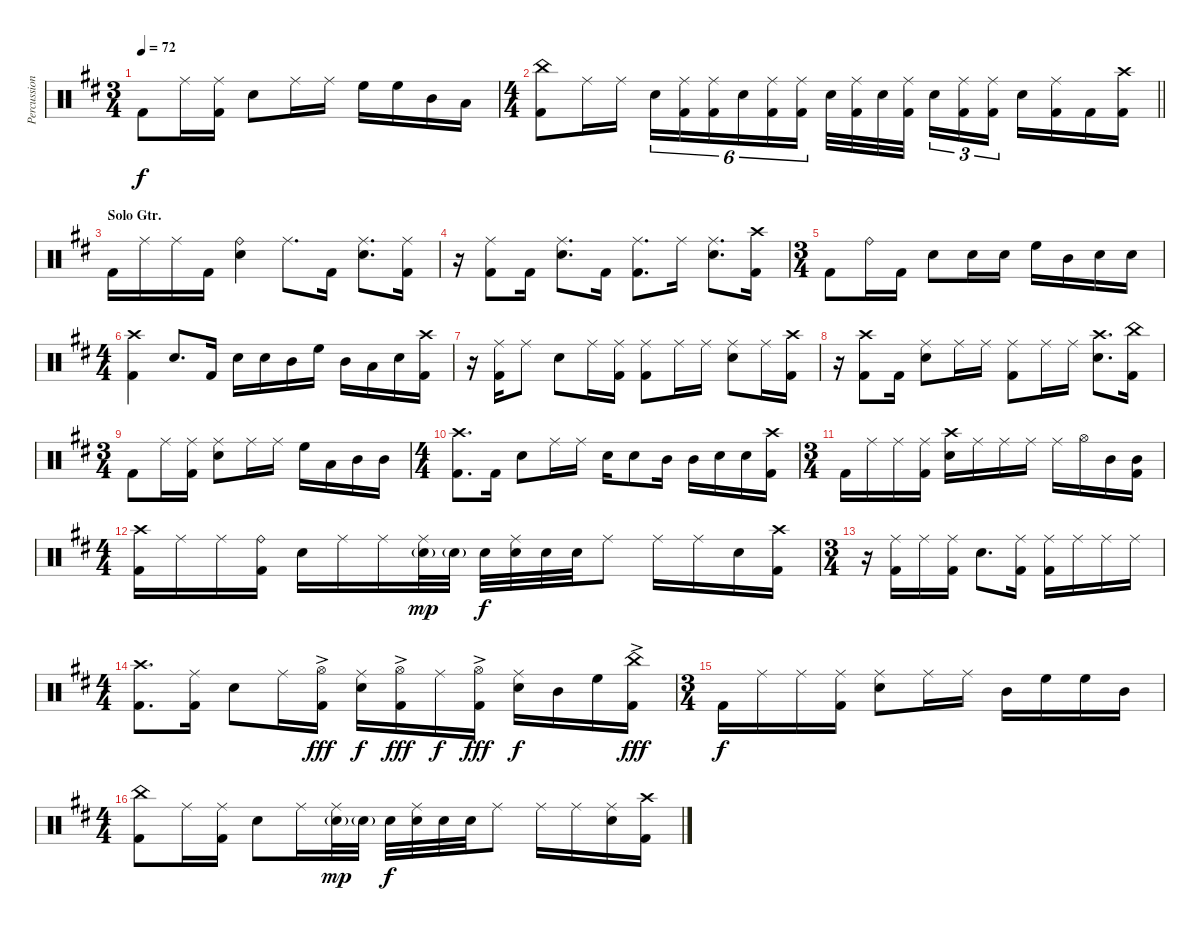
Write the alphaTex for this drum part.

\track ("Percussions" "Percussion") {instrument percussion}
\staff {score}
\articulation defaults
\ts (3 4)
\tempo 72
\clef neutral
\ks bminor "Kick (hit) 2".8{dy f} "Ride (middle)".16
("Ride (middle)" "Kick (hit) 2").16 "Snare (hit) 2".8 "Ride (middle)".16 "Ride (middle)".16 "High Floor Tom (hit)".16 "High Floor Tom (hit)".16 "Mid Tom (hit)".16 "Low Tom (hit)".16 |
\ts (4 4)
\barLineRight lightlight
("China (hit)" "Kick (hit) 2").8 "Ride (middle)".16 "Ride (middle)".16 "Snare (hit) 2".16{tu (6 4)} ("Ride (middle)" "Kick (hit) 2").16{tu (6 4)} ("Ride (middle)" "Kick (hit) 2").16{tu (6 4)} "Snare (hit) 2".16{tu (6 4)} ("Ride (middle)" "Kick (hit) 2").16{tu (6 4)} ("Ride (middle)" "Kick (hit) 2").16{tu (6 4)} "Snare (hit) 2".32 ("Ride (middle)" "Kick (hit) 2").32 "Snare (hit) 2".32 ("Ride (middle)" "Kick (hit) 2").32 "Snare (hit) 2".16{tu (3 2)} ("Ride (middle)" "Kick (hit) 2").16{tu (3 2)} ("Ride (middle)" "Kick (hit) 2").16{tu (3 2)} "Snare (hit) 2".16 ("Ride (middle)" "Kick (hit) 2").16 "Kick (hit) 2".16 ("Crash high (hit)" "Kick (hit) 2").16 |
\section ("" "Solo Gtr.")
"Kick (hit) 2".16 "Ride (middle)".16 "Ride (middle)".16 "Kick (hit) 2".16 ("Ride (bell)" "Snare (hit) 2").4 "Ride (middle)".8{d} "Kick (hit) 2".16 ("Ride (middle)" "Snare (hit) 2").8{d} ("Ride (middle)" "Kick (hit) 2").16 |
r.16 ("Ride (middle)" "Kick (hit) 2").8 "Kick (hit) 2".16 ("Ride (middle)" "Snare (hit) 2").8{d} "Kick (hit) 2".16 ("Ride (middle)" "Kick (hit) 2").8{d} "Ride (middle)".16 ("Ride (middle)" "Snare (hit) 2").8{d} ("Crash high (hit)" "Kick (hit) 2").16 |
\ts (3 4)
"Kick (hit) 2".8 "Ride (bell)".16 "Kick (hit) 2".16 "Snare (hit) 2".8 "Snare (hit) 2".16 "Snare (hit) 2".16 "High Floor Tom (hit)".16 "Mid Tom (hit)".16 "Snare (hit) 2".16 "Snare (hit) 2".16 |
\ts (4 4)
("Crash high (hit)" "Kick (hit) 2").4 "Snare (hit) 2".8{d} "Kick (hit) 2".16 "Snare (hit) 2".16 "Snare (hit) 2".16 "Mid Tom (hit)".16 "High Floor Tom (hit)".16 "Mid Tom (hit)".16 "Low Tom (hit)".16 "Snare (hit) 2".16 ("Crash high (hit)" "Kick (hit) 2").16 |
r.16 ("Ride (middle)" "Kick (hit) 2").16 "Ride (middle)".8 "Snare (hit) 2".8 "Ride (middle)".16 ("Ride (middle)" "Kick (hit) 2").16 ("Ride (middle)" "Kick (hit) 2").8 "Ride (middle)".16 "Ride (middle)".16 ("Ride (middle)" "Snare (hit) 2").8 "Ride (middle)".16 ("Crash high (hit)" "Kick (hit) 2").16 |
r.16 ("Crash high (hit)" "Kick (hit) 2").8 "Kick (hit) 2".16 ("Ride (middle)" "Snare (hit) 2").8 "Ride (middle)".16 "Ride (middle)".16 ("Ride (middle)" "Kick (hit) 2").8 "Ride (middle)".16 "Ride (middle)".16 ("Crash high (hit)" "Snare (hit) 2").8{d} ("China (hit)" "Kick (hit) 2").16 |
\ts (3 4)
"Kick (hit) 2".8 "Ride (middle)".16 ("Ride (middle)" "Kick (hit) 2").16 ("Ride (middle)" "Snare (hit) 2").8 "Ride (middle)".16 "Ride (middle)".16 "High Floor Tom (hit)".16 "Low Tom (hit)".16 "Mid Tom (hit)".16 "Mid Tom (hit)".16 |
\ts (4 4)
("Crash high (hit)" "Kick (hit) 2").8{d} "Kick (hit) 2".16 "Snare (hit) 2".8 "Ride (middle)".16 "Ride (middle)".16 "Snare (hit) 2".16 "Snare (hit) 2".8 "Mid Tom (hit)".16 "Mid Tom (hit)".16 "Snare (hit) 2".16 "Snare (hit) 2".16 ("Crash high (hit)" "Kick (hit) 2").16 |
\ts (3 4)
"Kick (hit) 2".16 "Ride (middle)".16 "Ride (middle)".16 ("Ride (middle)" "Kick (hit) 2").16 ("Crash high (hit)" "Snare (hit) 2").16 "Ride (middle)".16 "Ride (middle)".16 "Ride (middle)".16 "Ride (middle)".16 "Hi-Hat (open)".16 "Mid Tom (hit)".16 ("Mid Tom (hit)" "Kick (hit) 2").16 |
\ts (4 4)
("Crash high (hit)" "Kick (hit) 2").16 "Ride (middle)".16 "Ride (middle)".16 ("Ride (bell)" "Kick (hit) 2").16 "Snare (hit) 2".16 "Ride (middle)".16 "Ride (middle)".16 ("Ride (middle)" "Snare (hit) 2"{g}).32{dy mp} "Snare (hit) 2"{g}.32 "Snare (hit) 2".32{dy f} ("Ride (middle)" "Snare (hit) 2").32 "Snare (hit) 2".32 "Snare (hit) 2".32 "Ride (middle)".8 "Ride (middle)".16 "Ride (middle)".16 "Snare (hit) 2".16 ("Crash high (hit)" "Kick (hit) 2").16 |
\ts (3 4)
r.16 ("Ride (middle)" "Kick (hit) 2").16 "Ride (middle)".16 ("Ride (middle)" "Kick (hit) 2").16 "Snare (hit) 2".8{d} ("Ride (middle)" "Kick (hit) 2").16 ("Ride (middle)" "Kick (hit) 2").16 "Ride (middle)".16 "Ride (middle)".16 "Ride (middle)".16 |
\ts (4 4)
("Crash high (hit)" "Kick (hit) 2").8{d} ("Ride (middle)" "Kick (hit) 2").16 "Snare (hit) 2".8 "Ride (middle)".16 ("Hi-Hat (open)"{ac} "Kick (hit) 2").16{dy fff} ("Ride (middle)" "Snare (hit) 2").16{dy f} ("Hi-Hat (open)"{ac} "Kick (hit) 2").16{dy fff} "Ride (middle)".16{dy f} ("Hi-Hat (open)"{ac} "Kick (hit) 2").16{dy fff} ("Ride (middle)" "Snare (hit) 2").16{dy f} "Mid Tom (hit)".16 "High Floor Tom (hit)".16 ("China (hit)"{ac} "Kick (hit) 2").16{dy fff} |
\ts (3 4)
"Kick (hit) 2".16{dy f} "Ride (middle)".16 "Ride (middle)".16 ("Ride (middle)" "Kick (hit) 2").16 ("Ride (middle)" "Snare (hit) 2").8 "Ride (middle)".16 "Ride (middle)".16 "Mid Tom (hit)".16 "High Floor Tom (hit)".16 "High Floor Tom (hit)".16 "Mid Tom (hit)".16 |
\ts (4 4)
("China (hit)" "Kick (hit) 2").8 "Ride (middle)".16 ("Ride (middle)" "Kick (hit) 2").16 "Snare (hit) 2".8 "Ride (middle)".16 ("Ride (middle)" "Snare (hit) 2"{g}).32{dy mp} "Snare (hit) 2"{g}.32 "Snare (hit) 2".32{dy f} ("Ride (middle)" "Snare (hit) 2").32 "Snare (hit) 2".32 "Snare (hit) 2".32 "Ride (middle)".8 "Ride (middle)".16 "Ride (middle)".16 ("Ride (middle)" "Snare (hit) 2").16 ("Crash high (hit)" "Kick (hit) 2").16
